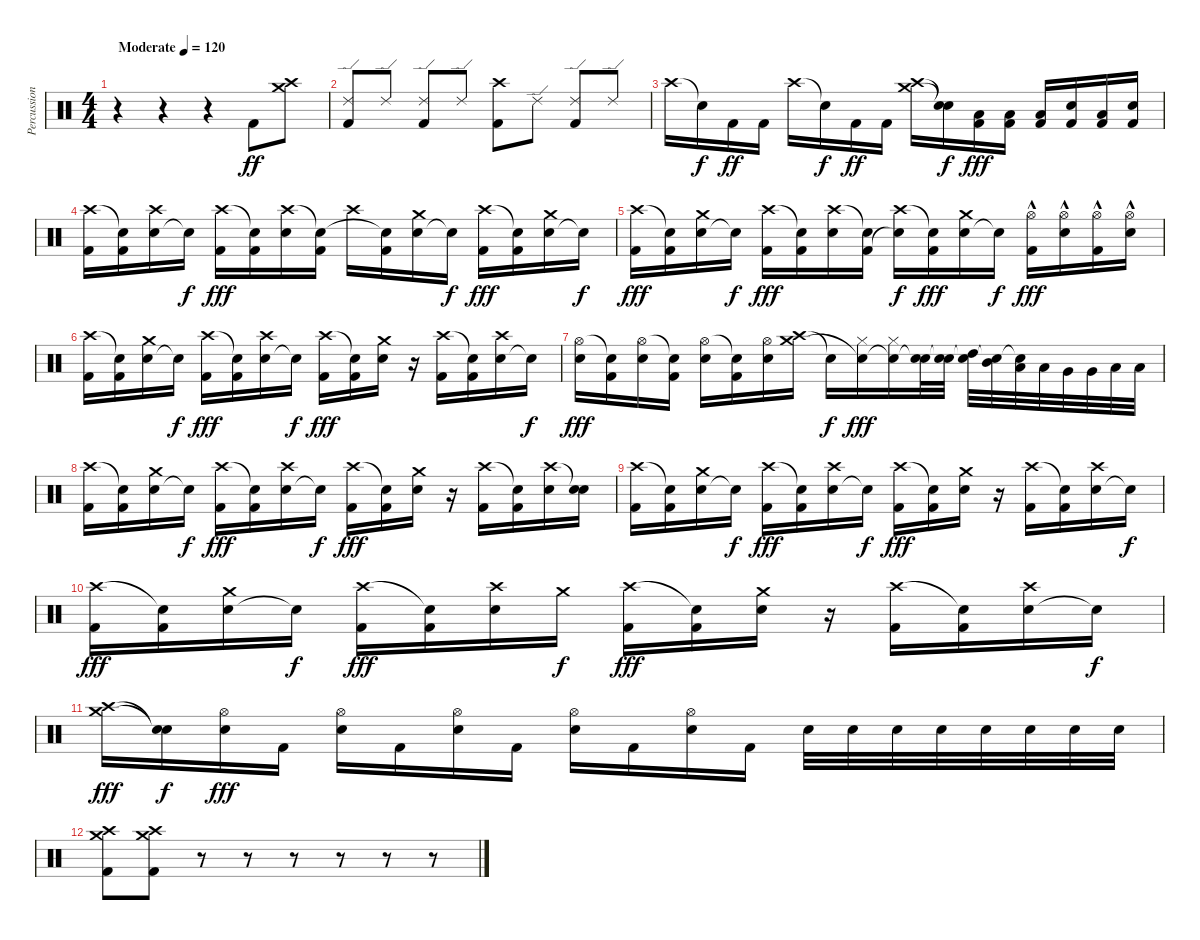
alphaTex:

\track ("Percussion" "Percussion") {instrument percussion}
\staff {score}
\articulation defaults
\ts (4 4)
\tempo (120 "Moderate")
\clef neutral
\ks c
r.4{dy ff} r.4 r.4 "Kick (hit) 2".8 ("Crash medium (hit)" "Crash high (hit)").8 |
("Kick (hit) 2" "Ride (edge) 2").8 "Ride (edge) 2".8 ("Kick (hit) 2" "Ride (edge) 2").8 "Ride (edge) 2".8 ("Kick (hit) 2" "Crash high (hit)").8 "Ride (edge) 2".8 ("Kick (hit) 2" "Ride (edge) 2").8 "Ride (edge) 2".8 |
"Crash high (hit)".16 "Snare (hit)"{t}.16{dy f} "Kick (hit) 2".16{dy ff} "Kick (hit) 2".16 "Crash high (hit)".16 "Snare (hit)"{t}.16{dy f} "Kick (hit) 2".16{dy ff} "Kick (hit) 2".16 ("Crash medium (hit)" "Crash high (hit)").16 ("Snare (hit)"{t} "Snare (hit)"{t}).16{dy f} ("Kick (hit) 2" "Low Floor Tom (hit)").16{dy fff} ("Kick (hit) 2" "Low Floor Tom (hit)").16 ("Kick (hit) 2" "Low Floor Tom (hit)").16 ("Kick (hit) 2" "Electric Snare (hit)").16 ("Kick (hit) 2" "Low Floor Tom (hit)").16 ("Kick (hit) 2" "Electric Snare (hit)").16 |
("Kick (hit) 2" "Crash high (hit)").16 ("Kick (hit) 2" "Snare (hit)"{t}).16 ("Electric Snare (hit)" "Crash high (hit)").16 "Snare (hit)"{t}.16{dy f} ("Kick (hit) 2" "Crash high (hit)").16{dy fff} ("Kick (hit) 2" "Snare (hit)"{t}).16 ("Electric Snare (hit)" "Crash high (hit)").16 ("Kick (hit) 2" "Snare (hit)"{t}).16 "Crash high (hit)".16 ("Kick (hit) 2" "Snare (hit)"{t}).16 ("Electric Snare (hit)" "Crash medium (hit)").16 "Snare (hit)"{t}.16{dy f} ("Kick (hit) 2" "Crash high (hit)").16{dy fff} ("Kick (hit) 2" "Snare (hit)"{t}).16 ("Electric Snare (hit)" "Crash medium (hit)").16 "Snare (hit)"{t}.16{dy f} |
("Kick (hit) 2" "Crash high (hit)").16{dy fff} ("Kick (hit) 2" "Snare (hit)"{t}).16 ("Electric Snare (hit)" "Crash medium (hit)").16 "Snare (hit)"{t}.16{dy f} ("Kick (hit) 2" "Crash high (hit)").16{dy fff} ("Kick (hit) 2" "Snare (hit)"{t}).16 ("Electric Snare (hit)" "Crash high (hit)").16 ("Kick (hit) 2" "Snare (hit)"{t}).16 ("Snare (hit)"{t} "Crash high (hit)").16{dy f} ("Kick (hit) 2" "Snare (hit)"{t}).16{dy fff} ("Electric Snare (hit)" "Crash medium (hit)").16 "Snare (hit)"{t}.16{dy f} ("Kick (hit) 2"{hac} "Hi-Hat (open)"{hac}).16{dy fff} ("Electric Snare (hit)"{hac} "Hi-Hat (open)"{hac}).16 ("Kick (hit) 2"{hac} "Hi-Hat (open)"{hac}).16 ("Electric Snare (hit)"{hac} "Hi-Hat (open)"{hac}).16 |
("Kick (hit) 2" "Crash high (hit)").16 ("Kick (hit) 2" "Snare (hit)"{t}).16 ("Electric Snare (hit)" "Crash medium (hit)").16 "Snare (hit)"{t}.16{dy f} ("Kick (hit) 2" "Crash high (hit)").16{dy fff} ("Kick (hit) 2" "Snare (hit)"{t}).16 ("Electric Snare (hit)" "Crash high (hit)").16 "Snare (hit)"{t}.16{dy f} ("Kick (hit) 2" "Crash high (hit)").16{dy fff} ("Kick (hit) 2" "Snare (hit)"{t}).16 ("Electric Snare (hit)" "Crash medium (hit)").16 r.16 ("Kick (hit) 2" "Crash high (hit)").16 ("Kick (hit) 2" "Snare (hit)"{t}).16 ("Electric Snare (hit)" "Crash high (hit)").16 "Snare (hit)"{t}.16{dy f} |
("Electric Snare (hit)" "Hi-Hat (open)").16{dy fff} ("Kick (hit) 2" "Snare (hit)"{t}).16 ("Electric Snare (hit)" "Hi-Hat (open)").16 ("Kick (hit) 2" "Snare (hit)"{t}).16 ("Electric Snare (hit)" "Hi-Hat (open)").16 ("Kick (hit) 2" "Snare (hit)"{t}).16 ("Electric Snare (hit)" "Hi-Hat (open)").16 ("Crash high (hit)" "Crash medium (hit)").16 "Snare (hit)"{t}.16{dy f} ("Hi-Hat (closed)" "Snare (hit)"{t}).16{dy fff} ("Hi-Hat (closed)" "Snare (hit)"{t}).16 ("Electric Snare (hit)" "Snare (hit)"{t}).32 ("Electric Snare (hit)" "Snare (hit)"{t}).32 ("High Tom (hit)" "Snare (hit)"{t}).32 ("Mid Tom (hit)" "Snare (hit)"{t}).32 ("Low Tom (hit)" "Snare (hit)"{t}).32 "Low Tom (hit)".32 "Very Low Tom (hit)".32 "Very Low Tom (hit)".32 "Low Floor Tom (hit)".32 "Low Floor Tom (hit)".32 |
("Kick (hit) 2" "Crash high (hit)").16 ("Kick (hit) 2" "Snare (hit)"{t}).16 ("Electric Snare (hit)" "Crash medium (hit)").16 "Snare (hit)"{t}.16{dy f} ("Kick (hit) 2" "Crash high (hit)").16{dy fff} ("Kick (hit) 2" "Snare (hit)"{t}).16 ("Electric Snare (hit)" "Crash high (hit)").16 "Snare (hit)"{t}.16{dy f} ("Kick (hit) 2" "Crash high (hit)").16{dy fff} ("Kick (hit) 2" "Snare (hit)"{t}).16 ("Electric Snare (hit)" "Crash medium (hit)").16 r.16 ("Kick (hit) 2" "Crash high (hit)").16 ("Kick (hit) 2" "Snare (hit)"{t}).16 ("Electric Snare (hit)" "Crash high (hit)").16 ("Electric Snare (hit)" "Snare (hit)"{t}).16 |
("Kick (hit) 2" "Crash high (hit)").16 ("Kick (hit) 2" "Snare (hit)"{t}).16 ("Electric Snare (hit)" "Crash medium (hit)").16 "Snare (hit)"{t}.16{dy f} ("Kick (hit) 2" "Crash high (hit)").16{dy fff} ("Kick (hit) 2" "Snare (hit)"{t}).16 ("Electric Snare (hit)" "Crash high (hit)").16 "Snare (hit)"{t}.16{dy f} ("Kick (hit) 2" "Crash high (hit)").16{dy fff} ("Kick (hit) 2" "Snare (hit)"{t}).16 ("Electric Snare (hit)" "Crash medium (hit)").16 r.16 ("Kick (hit) 2" "Crash high (hit)").16 ("Kick (hit) 2" "Snare (hit)"{t}).16 ("Electric Snare (hit)" "Crash high (hit)").16 "Snare (hit)"{t}.16{dy f} |
("Kick (hit) 2" "Crash high (hit)").16{dy fff} ("Kick (hit) 2" "Snare (hit)"{t}).16 ("Electric Snare (hit)" "Crash medium (hit)").16 "Snare (hit)"{t}.16{dy f} ("Kick (hit) 2" "Crash high (hit)").16{dy fff} ("Kick (hit) 2" "Snare (hit)"{t}).16 ("Electric Snare (hit)" "Crash high (hit)").16 "Crash medium (hit)".16{dy f} ("Kick (hit) 2" "Crash high (hit)").16{dy fff} ("Kick (hit) 2" "Snare (hit)"{t}).16 ("Electric Snare (hit)" "Crash medium (hit)").16 r.16 ("Kick (hit) 2" "Crash high (hit)").16 ("Kick (hit) 2" "Snare (hit)"{t}).16 ("Electric Snare (hit)" "Crash high (hit)").16 "Snare (hit)"{t}.16{dy f} |
("Crash high (hit)" "Crash medium (hit)").16{dy fff} ("Snare (hit)"{t} "Snare (hit)"{t}).16{dy f} ("Hi-Hat (open)" "Electric Snare (hit)").16{dy fff} "Kick (hit) 2".16 ("Hi-Hat (open)" "Electric Snare (hit)").16 "Kick (hit) 2".16 ("Hi-Hat (open)" "Electric Snare (hit)").16 "Kick (hit) 2".16 ("Hi-Hat (open)" "Electric Snare (hit)").16 "Kick (hit) 2".16 ("Hi-Hat (open)" "Electric Snare (hit)").16 "Kick (hit) 2".16 "Electric Snare (hit)".32 "Electric Snare (hit)".32 "Electric Snare (hit)".32 "Electric Snare (hit)".32 "Electric Snare (hit)".32 "Electric Snare (hit)".32 "Electric Snare (hit)".32 "Electric Snare (hit)".32 |
("Kick (hit) 2" "Crash medium (hit)" "Crash high (hit)").8 ("Kick (hit) 2" "Crash medium (hit)" "Crash high (hit)").8 r.8 r.8 r.8 r.8 r.8 r.8
